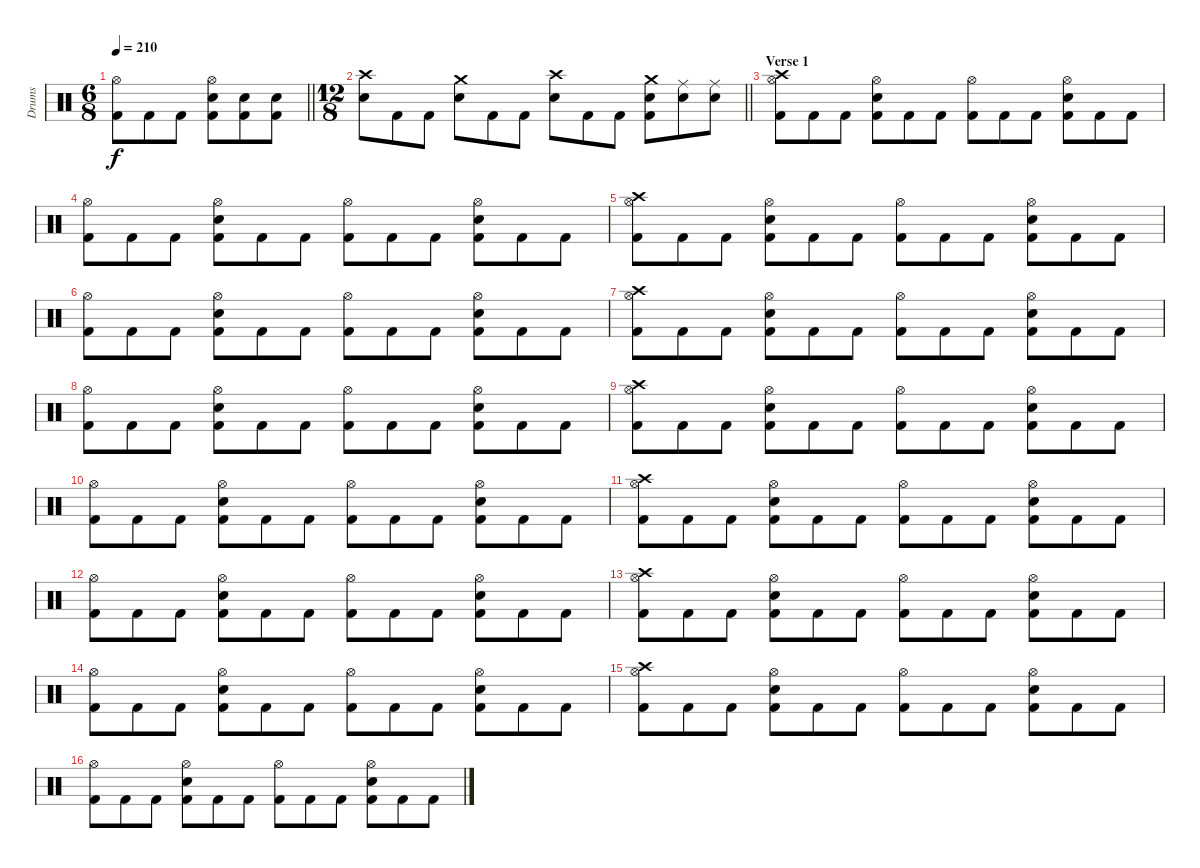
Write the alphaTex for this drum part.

\track ("Drums" "Drums") {instrument percussion}
\staff {score}
\articulation defaults
\ts (6 8)
\tempo 210
\clef neutral
\barLineRight lightlight
\ks c
("Hi-Hat (open)" "Kick (hit) 2").8{dy f} "Kick (hit) 2".8 "Kick (hit) 2".8 ("Hi-Hat (open)" "Snare (hit) 2" "Kick (hit) 2").8 ("Snare (hit) 2" "Kick (hit) 2").8 ("Snare (hit) 2" "Kick (hit) 2").8 |
\ts (12 8)
\barLineRight lightlight
("Crash high (hit)" "Snare (hit) 2").8 "Kick (hit) 2".8 "Kick (hit) 2".8 ("Crash medium (hit)" "Snare (hit) 2").8 "Kick (hit) 2".8 "Kick (hit) 2".8 ("Crash high (hit)" "Snare (hit) 2").8 "Kick (hit) 2".8 "Kick (hit) 2".8 ("Crash medium (hit)" "Snare (hit) 2" "Kick (hit) 2").8 ("Ride (middle)" "Snare (hit) 2").8 ("Ride (middle)" "Snare (hit) 2").8 |
\section ("" "Verse 1")
("Crash high (hit)" "Hi-Hat (open)" "Kick (hit) 2").8 "Kick (hit) 2".8 "Kick (hit) 2".8 ("Hi-Hat (open)" "Snare (hit) 2" "Kick (hit) 2").8 "Kick (hit) 2".8 "Kick (hit) 2".8 ("Hi-Hat (open)" "Kick (hit) 2").8 "Kick (hit) 2".8 "Kick (hit) 2".8 ("Hi-Hat (open)" "Snare (hit) 2" "Kick (hit) 2").8 "Kick (hit) 2".8 "Kick (hit) 2".8 |
("Hi-Hat (open)" "Kick (hit) 2").8 "Kick (hit) 2".8 "Kick (hit) 2".8 ("Hi-Hat (open)" "Snare (hit) 2" "Kick (hit) 2").8 "Kick (hit) 2".8 "Kick (hit) 2".8 ("Hi-Hat (open)" "Kick (hit) 2").8 "Kick (hit) 2".8 "Kick (hit) 2".8 ("Hi-Hat (open)" "Snare (hit) 2" "Kick (hit) 2").8 "Kick (hit) 2".8 "Kick (hit) 2".8 |
("Crash high (hit)" "Hi-Hat (open)" "Kick (hit) 2").8 "Kick (hit) 2".8 "Kick (hit) 2".8 ("Hi-Hat (open)" "Snare (hit) 2" "Kick (hit) 2").8 "Kick (hit) 2".8 "Kick (hit) 2".8 ("Hi-Hat (open)" "Kick (hit) 2").8 "Kick (hit) 2".8 "Kick (hit) 2".8 ("Hi-Hat (open)" "Snare (hit) 2" "Kick (hit) 2").8 "Kick (hit) 2".8 "Kick (hit) 2".8 |
("Hi-Hat (open)" "Kick (hit) 2").8 "Kick (hit) 2".8 "Kick (hit) 2".8 ("Hi-Hat (open)" "Snare (hit) 2" "Kick (hit) 2").8 "Kick (hit) 2".8 "Kick (hit) 2".8 ("Hi-Hat (open)" "Kick (hit) 2").8 "Kick (hit) 2".8 "Kick (hit) 2".8 ("Hi-Hat (open)" "Snare (hit) 2" "Kick (hit) 2").8 "Kick (hit) 2".8 "Kick (hit) 2".8 |
("Crash high (hit)" "Hi-Hat (open)" "Kick (hit) 2").8 "Kick (hit) 2".8 "Kick (hit) 2".8 ("Hi-Hat (open)" "Snare (hit) 2" "Kick (hit) 2").8 "Kick (hit) 2".8 "Kick (hit) 2".8 ("Hi-Hat (open)" "Kick (hit) 2").8 "Kick (hit) 2".8 "Kick (hit) 2".8 ("Hi-Hat (open)" "Snare (hit) 2" "Kick (hit) 2").8 "Kick (hit) 2".8 "Kick (hit) 2".8 |
("Hi-Hat (open)" "Kick (hit) 2").8 "Kick (hit) 2".8 "Kick (hit) 2".8 ("Hi-Hat (open)" "Snare (hit) 2" "Kick (hit) 2").8 "Kick (hit) 2".8 "Kick (hit) 2".8 ("Hi-Hat (open)" "Kick (hit) 2").8 "Kick (hit) 2".8 "Kick (hit) 2".8 ("Hi-Hat (open)" "Snare (hit) 2" "Kick (hit) 2").8 "Kick (hit) 2".8 "Kick (hit) 2".8 |
("Crash high (hit)" "Hi-Hat (open)" "Kick (hit) 2").8 "Kick (hit) 2".8 "Kick (hit) 2".8 ("Hi-Hat (open)" "Snare (hit) 2" "Kick (hit) 2").8 "Kick (hit) 2".8 "Kick (hit) 2".8 ("Hi-Hat (open)" "Kick (hit) 2").8 "Kick (hit) 2".8 "Kick (hit) 2".8 ("Hi-Hat (open)" "Snare (hit) 2" "Kick (hit) 2").8 "Kick (hit) 2".8 "Kick (hit) 2".8 |
("Hi-Hat (open)" "Kick (hit) 2").8 "Kick (hit) 2".8 "Kick (hit) 2".8 ("Hi-Hat (open)" "Snare (hit) 2" "Kick (hit) 2").8 "Kick (hit) 2".8 "Kick (hit) 2".8 ("Hi-Hat (open)" "Kick (hit) 2").8 "Kick (hit) 2".8 "Kick (hit) 2".8 ("Hi-Hat (open)" "Snare (hit) 2" "Kick (hit) 2").8 "Kick (hit) 2".8 "Kick (hit) 2".8 |
("Crash high (hit)" "Hi-Hat (open)" "Kick (hit) 2").8 "Kick (hit) 2".8 "Kick (hit) 2".8 ("Hi-Hat (open)" "Snare (hit) 2" "Kick (hit) 2").8 "Kick (hit) 2".8 "Kick (hit) 2".8 ("Hi-Hat (open)" "Kick (hit) 2").8 "Kick (hit) 2".8 "Kick (hit) 2".8 ("Hi-Hat (open)" "Snare (hit) 2" "Kick (hit) 2").8 "Kick (hit) 2".8 "Kick (hit) 2".8 |
("Hi-Hat (open)" "Kick (hit) 2").8 "Kick (hit) 2".8 "Kick (hit) 2".8 ("Hi-Hat (open)" "Snare (hit) 2" "Kick (hit) 2").8 "Kick (hit) 2".8 "Kick (hit) 2".8 ("Hi-Hat (open)" "Kick (hit) 2").8 "Kick (hit) 2".8 "Kick (hit) 2".8 ("Hi-Hat (open)" "Snare (hit) 2" "Kick (hit) 2").8 "Kick (hit) 2".8 "Kick (hit) 2".8 |
("Crash high (hit)" "Hi-Hat (open)" "Kick (hit) 2").8 "Kick (hit) 2".8 "Kick (hit) 2".8 ("Hi-Hat (open)" "Snare (hit) 2" "Kick (hit) 2").8 "Kick (hit) 2".8 "Kick (hit) 2".8 ("Hi-Hat (open)" "Kick (hit) 2").8 "Kick (hit) 2".8 "Kick (hit) 2".8 ("Hi-Hat (open)" "Snare (hit) 2" "Kick (hit) 2").8 "Kick (hit) 2".8 "Kick (hit) 2".8 |
("Hi-Hat (open)" "Kick (hit) 2").8 "Kick (hit) 2".8 "Kick (hit) 2".8 ("Hi-Hat (open)" "Snare (hit) 2" "Kick (hit) 2").8 "Kick (hit) 2".8 "Kick (hit) 2".8 ("Hi-Hat (open)" "Kick (hit) 2").8 "Kick (hit) 2".8 "Kick (hit) 2".8 ("Hi-Hat (open)" "Snare (hit) 2" "Kick (hit) 2").8 "Kick (hit) 2".8 "Kick (hit) 2".8 |
("Crash high (hit)" "Hi-Hat (open)" "Kick (hit) 2").8 "Kick (hit) 2".8 "Kick (hit) 2".8 ("Hi-Hat (open)" "Snare (hit) 2" "Kick (hit) 2").8 "Kick (hit) 2".8 "Kick (hit) 2".8 ("Hi-Hat (open)" "Kick (hit) 2").8 "Kick (hit) 2".8 "Kick (hit) 2".8 ("Hi-Hat (open)" "Snare (hit) 2" "Kick (hit) 2").8 "Kick (hit) 2".8 "Kick (hit) 2".8 |
("Hi-Hat (open)" "Kick (hit) 2").8 "Kick (hit) 2".8 "Kick (hit) 2".8 ("Hi-Hat (open)" "Snare (hit) 2" "Kick (hit) 2").8 "Kick (hit) 2".8 "Kick (hit) 2".8 ("Hi-Hat (open)" "Kick (hit) 2").8 "Kick (hit) 2".8 "Kick (hit) 2".8 ("Hi-Hat (open)" "Snare (hit) 2" "Kick (hit) 2").8 "Kick (hit) 2".8 "Kick (hit) 2".8
